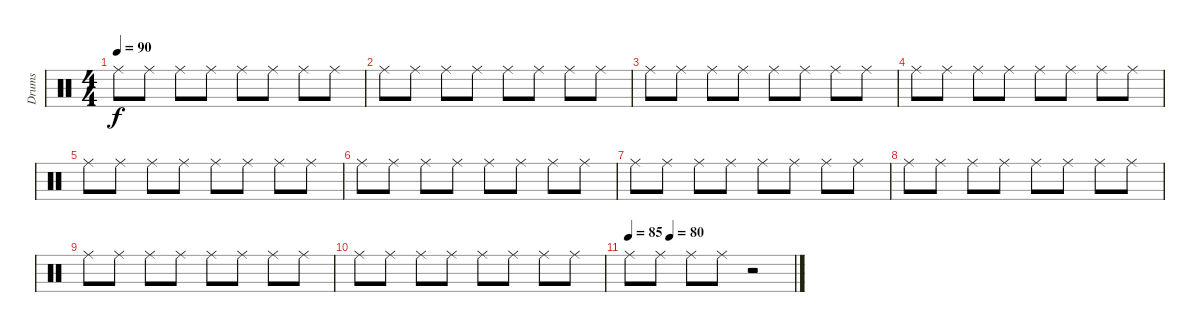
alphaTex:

\track ("Drums" "Drums") {instrument percussion}
\staff {score}
\articulation defaults
\ts (4 4)
\tempo 90
\clef neutral
\ks c "Ride (middle)".8{dy f} "Ride (middle)".8 "Ride (middle)".8 "Ride (middle)".8 "Ride (middle)".8 "Ride (middle)".8 "Ride (middle)".8 "Ride (middle)".8
|
"Ride (middle)".8 "Ride (middle)".8 "Ride (middle)".8 "Ride (middle)".8 "Ride (middle)".8 "Ride (middle)".8 "Ride (middle)".8 "Ride (middle)".8 |
"Ride (middle)".8 "Ride (middle)".8 "Ride (middle)".8 "Ride (middle)".8 "Ride (middle)".8 "Ride (middle)".8 "Ride (middle)".8 "Ride (middle)".8 |
"Ride (middle)".8 "Ride (middle)".8 "Ride (middle)".8 "Ride (middle)".8 "Ride (middle)".8 "Ride (middle)".8 "Ride (middle)".8 "Ride (middle)".8 |
"Ride (middle)".8 "Ride (middle)".8 "Ride (middle)".8 "Ride (middle)".8 "Ride (middle)".8 "Ride (middle)".8 "Ride (middle)".8 "Ride (middle)".8 |
"Ride (middle)".8 "Ride (middle)".8 "Ride (middle)".8 "Ride (middle)".8 "Ride (middle)".8 "Ride (middle)".8 "Ride (middle)".8 "Ride (middle)".8 |
"Ride (middle)".8 "Ride (middle)".8 "Ride (middle)".8 "Ride (middle)".8 "Ride (middle)".8 "Ride (middle)".8 "Ride (middle)".8 "Ride (middle)".8 |
"Ride (middle)".8 "Ride (middle)".8 "Ride (middle)".8 "Ride (middle)".8 "Ride (middle)".8 "Ride (middle)".8 "Ride (middle)".8 "Ride (middle)".8 |
"Ride (middle)".8 "Ride (middle)".8 "Ride (middle)".8 "Ride (middle)".8 "Ride (middle)".8 "Ride (middle)".8 "Ride (middle)".8 "Ride (middle)".8 |
"Ride (middle)".8 "Ride (middle)".8 "Ride (middle)".8 "Ride (middle)".8 "Ride (middle)".8 "Ride (middle)".8 "Ride (middle)".8 "Ride (middle)".8 |
\tempo 85
\tempo (80 0.25)
"Ride (middle)".8 "Ride (middle)".8 "Ride (middle)".8 "Ride (middle)".8 r.2
